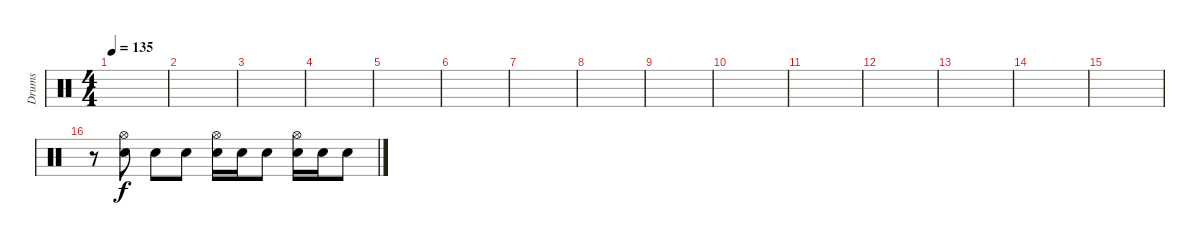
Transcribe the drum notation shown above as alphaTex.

\track ("Drums" "Drums") {instrument percussion}
\staff {score}
\articulation defaults
\ts (4 4)
\tempo 135
\clef neutral
\ks c
|
|
|
|
|
|
|
|
|
|
|
|
|
|
|
r.8 ("Hi-Hat (open)" "Snare (hit) 2").8 "Snare (hit) 2".8 "Snare (hit) 2".8 ("Hi-Hat (open)" "Snare (hit) 2").16 "Snare (hit) 2".16 "Snare (hit) 2".8 ("Hi-Hat (open)" "Snare (hit) 2").16 "Snare (hit) 2".16 "Snare (hit) 2".8
